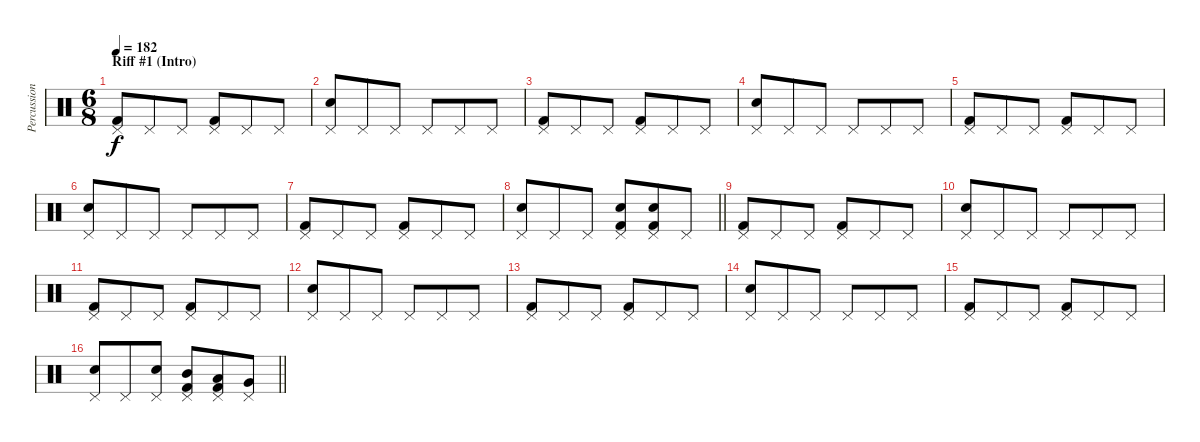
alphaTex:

\track ("Percussion" "Percussion") {instrument percussion}
\staff {score}
\articulation defaults
\ts (6 8)
\section ("" "Riff #1 (Intro)")
\tempo 182
\clef neutral
\ks c
("Kick (hit) 2" "Pedal Hi-Hat (hit)").8{dy f} "Pedal Hi-Hat (hit)".8 "Pedal Hi-Hat (hit)".8 ("Kick (hit) 2" "Pedal Hi-Hat (hit)").8 "Pedal Hi-Hat (hit)".8 "Pedal Hi-Hat (hit)".8 |
("Snare (hit) 2" "Pedal Hi-Hat (hit)").8 "Pedal Hi-Hat (hit)".8 "Pedal Hi-Hat (hit)".8 "Pedal Hi-Hat (hit)".8 "Pedal Hi-Hat (hit)".8 "Pedal Hi-Hat (hit)".8 |
("Kick (hit) 2" "Pedal Hi-Hat (hit)").8 "Pedal Hi-Hat (hit)".8 "Pedal Hi-Hat (hit)".8 ("Kick (hit) 2" "Pedal Hi-Hat (hit)").8 "Pedal Hi-Hat (hit)".8 "Pedal Hi-Hat (hit)".8 |
("Snare (hit) 2" "Pedal Hi-Hat (hit)").8 "Pedal Hi-Hat (hit)".8 "Pedal Hi-Hat (hit)".8 "Pedal Hi-Hat (hit)".8 "Pedal Hi-Hat (hit)".8 "Pedal Hi-Hat (hit)".8 |
("Kick (hit) 2" "Pedal Hi-Hat (hit)").8 "Pedal Hi-Hat (hit)".8 "Pedal Hi-Hat (hit)".8 ("Kick (hit) 2" "Pedal Hi-Hat (hit)").8 "Pedal Hi-Hat (hit)".8 "Pedal Hi-Hat (hit)".8 |
("Snare (hit) 2" "Pedal Hi-Hat (hit)").8 "Pedal Hi-Hat (hit)".8 "Pedal Hi-Hat (hit)".8 "Pedal Hi-Hat (hit)".8 "Pedal Hi-Hat (hit)".8 "Pedal Hi-Hat (hit)".8 |
("Kick (hit) 2" "Pedal Hi-Hat (hit)").8 "Pedal Hi-Hat (hit)".8 "Pedal Hi-Hat (hit)".8 ("Kick (hit) 2" "Pedal Hi-Hat (hit)").8 "Pedal Hi-Hat (hit)".8 "Pedal Hi-Hat (hit)".8 |
\barLineRight lightlight
("Snare (hit) 2" "Pedal Hi-Hat (hit)").8 "Pedal Hi-Hat (hit)".8 "Pedal Hi-Hat (hit)".8 ("Kick (hit) 2" "Snare (hit) 2" "Pedal Hi-Hat (hit)").8 ("Kick (hit) 2" "Snare (hit) 2" "Pedal Hi-Hat (hit)").8 "Pedal Hi-Hat (hit)".8 |
("Kick (hit) 2" "Pedal Hi-Hat (hit)").8 "Pedal Hi-Hat (hit)".8 "Pedal Hi-Hat (hit)".8 ("Kick (hit) 2" "Pedal Hi-Hat (hit)").8 "Pedal Hi-Hat (hit)".8 "Pedal Hi-Hat (hit)".8 |
("Snare (hit) 2" "Pedal Hi-Hat (hit)").8 "Pedal Hi-Hat (hit)".8 "Pedal Hi-Hat (hit)".8 "Pedal Hi-Hat (hit)".8 "Pedal Hi-Hat (hit)".8 "Pedal Hi-Hat (hit)".8 |
("Kick (hit) 2" "Pedal Hi-Hat (hit)").8 "Pedal Hi-Hat (hit)".8 "Pedal Hi-Hat (hit)".8 ("Kick (hit) 2" "Pedal Hi-Hat (hit)").8 "Pedal Hi-Hat (hit)".8 "Pedal Hi-Hat (hit)".8 |
("Snare (hit) 2" "Pedal Hi-Hat (hit)").8 "Pedal Hi-Hat (hit)".8 "Pedal Hi-Hat (hit)".8 "Pedal Hi-Hat (hit)".8 "Pedal Hi-Hat (hit)".8 "Pedal Hi-Hat (hit)".8 |
("Kick (hit) 2" "Pedal Hi-Hat (hit)").8 "Pedal Hi-Hat (hit)".8 "Pedal Hi-Hat (hit)".8 ("Kick (hit) 2" "Pedal Hi-Hat (hit)").8 "Pedal Hi-Hat (hit)".8 "Pedal Hi-Hat (hit)".8 |
("Snare (hit) 2" "Pedal Hi-Hat (hit)").8 "Pedal Hi-Hat (hit)".8 "Pedal Hi-Hat (hit)".8 "Pedal Hi-Hat (hit)".8 "Pedal Hi-Hat (hit)".8 "Pedal Hi-Hat (hit)".8 |
("Kick (hit) 2" "Pedal Hi-Hat (hit)").8 "Pedal Hi-Hat (hit)".8 "Pedal Hi-Hat (hit)".8 ("Kick (hit) 2" "Pedal Hi-Hat (hit)").8 "Pedal Hi-Hat (hit)".8 "Pedal Hi-Hat (hit)".8 |
\barLineRight lightlight
("Snare (hit) 2" "Pedal Hi-Hat (hit)").8 "Pedal Hi-Hat (hit)".8 ("Snare (hit) 2" "Pedal Hi-Hat (hit)").8 ("Kick (hit) 2" "Mid Tom (hit)" "Pedal Hi-Hat (hit)").8 ("Kick (hit) 2" "Low Tom (hit)" "Pedal Hi-Hat (hit)").8 ("Very Low Tom (hit)" "Pedal Hi-Hat (hit)").8
